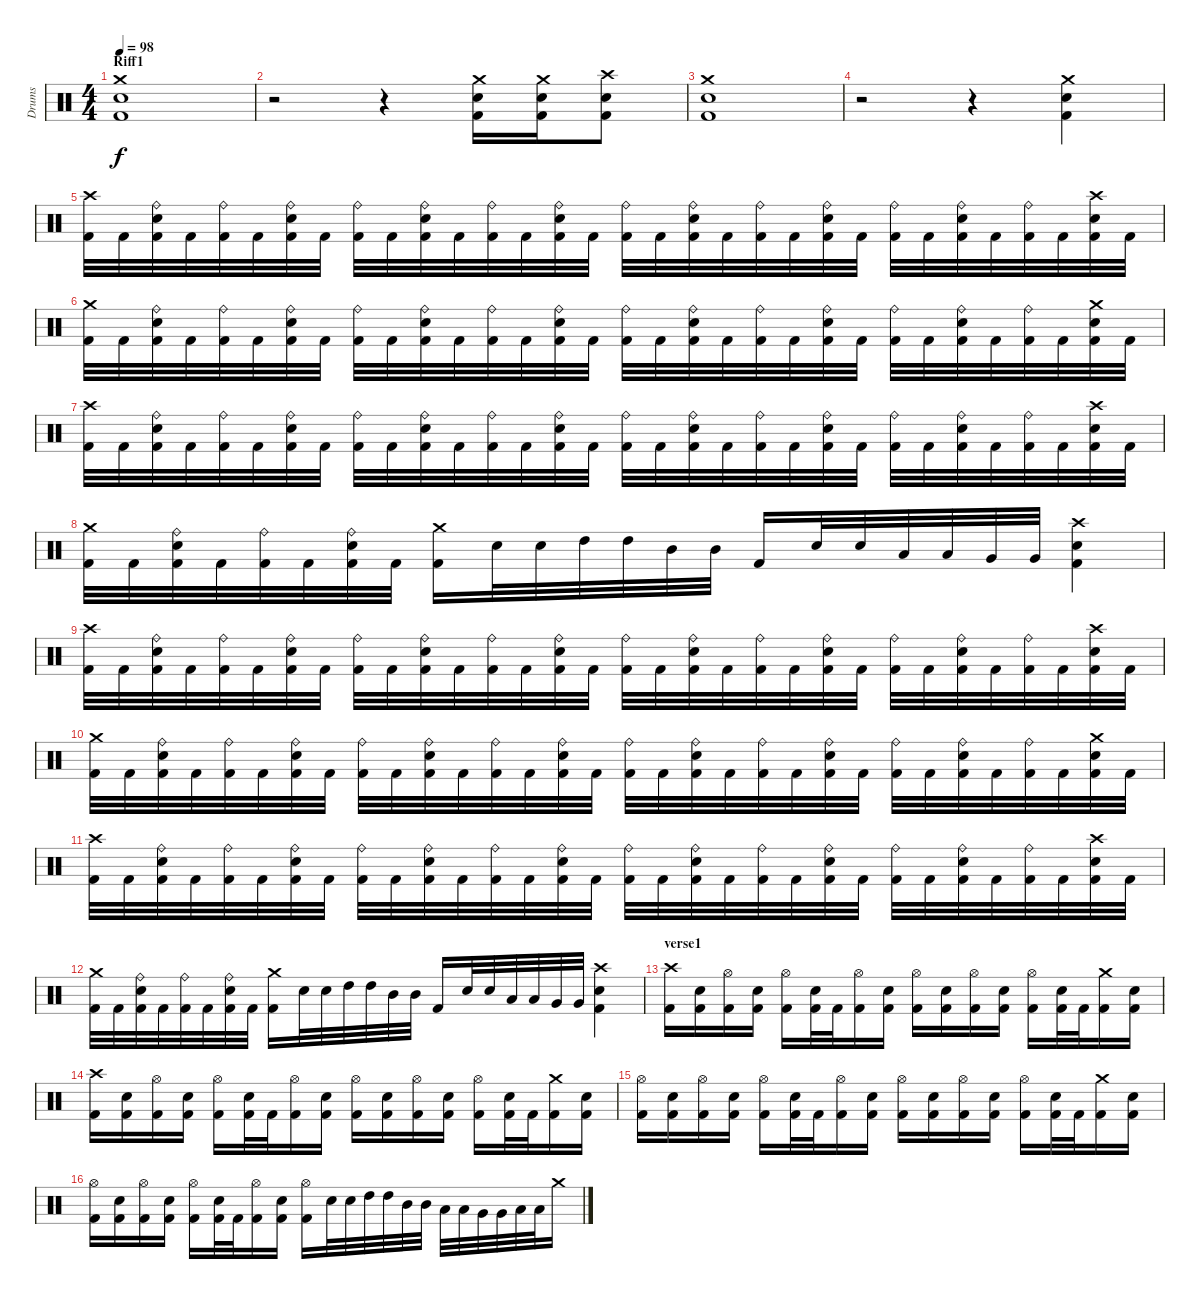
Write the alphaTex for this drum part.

\track ("Drums" "Drums") {instrument percussion}
\staff {score}
\articulation defaults
\ts (4 4)
\section ("" "Riff1")
\tempo 98
\clef neutral
\ks c
("Crash medium (hit)" "Electric Snare (hit)" "Kick (hit) 2").1{dy f} |
r.2 r.4 ("Crash medium (hit)" "Electric Snare (hit)" "Kick (hit) 2").16 ("Crash medium (hit)" "Electric Snare (hit)" "Kick (hit) 2").16 ("Crash high (hit)" "Electric Snare (hit)" "Kick (hit) 2").8 |
("Crash medium (hit)" "Electric Snare (hit)" "Kick (hit) 2").1 |
r.2 r.4 ("Crash medium (hit)" "Electric Snare (hit)" "Kick (hit) 2").4 |
("Crash high (hit)" "Kick (hit) 2").32 "Kick (hit) 2".32 ("Ride (bell)" "Electric Snare (hit)" "Kick (hit) 2").32 "Kick (hit) 2".32 ("Ride (bell)" "Kick (hit) 2").32 "Kick (hit) 2".32 ("Ride (bell)" "Electric Snare (hit)" "Kick (hit) 2").32 "Kick (hit) 2".32 ("Ride (bell)" "Kick (hit) 2").32 "Kick (hit) 2".32 ("Ride (bell)" "Electric Snare (hit)" "Kick (hit) 2").32 "Kick (hit) 2".32 ("Ride (bell)" "Kick (hit) 2").32 "Kick (hit) 2".32 ("Ride (bell)" "Electric Snare (hit)" "Kick (hit) 2").32 "Kick (hit) 2".32 ("Ride (bell)" "Kick (hit) 2").32 "Kick (hit) 2".32 ("Ride (bell)" "Electric Snare (hit)" "Kick (hit) 2").32 "Kick (hit) 2".32 ("Ride (bell)" "Kick (hit) 2").32 "Kick (hit) 2".32 ("Ride (bell)" "Electric Snare (hit)" "Kick (hit) 2").32 "Kick (hit) 2".32 ("Ride (bell)" "Kick (hit) 2").32 "Kick (hit) 2".32 ("Ride (bell)" "Electric Snare (hit)" "Kick (hit) 2").32 "Kick (hit) 2".32 ("Ride (bell)" "Kick (hit) 2").32 "Kick (hit) 2".32 ("Crash high (hit)" "Electric Snare (hit)" "Kick (hit) 2").32 "Kick (hit) 2".32 |
("Crash medium (hit)" "Kick (hit) 2").32 "Kick (hit) 2".32 ("Ride (bell)" "Electric Snare (hit)" "Kick (hit) 2").32 "Kick (hit) 2".32 ("Ride (bell)" "Kick (hit) 2").32 "Kick (hit) 2".32 ("Ride (bell)" "Electric Snare (hit)" "Kick (hit) 2").32 "Kick (hit) 2".32 ("Ride (bell)" "Kick (hit) 2").32 "Kick (hit) 2".32 ("Ride (bell)" "Electric Snare (hit)" "Kick (hit) 2").32 "Kick (hit) 2".32 ("Ride (bell)" "Kick (hit) 2").32 "Kick (hit) 2".32 ("Ride (bell)" "Electric Snare (hit)" "Kick (hit) 2").32 "Kick (hit) 2".32 ("Ride (bell)" "Kick (hit) 2").32 "Kick (hit) 2".32 ("Ride (bell)" "Electric Snare (hit)" "Kick (hit) 2").32 "Kick (hit) 2".32 ("Ride (bell)" "Kick (hit) 2").32 "Kick (hit) 2".32 ("Ride (bell)" "Electric Snare (hit)" "Kick (hit) 2").32 "Kick (hit) 2".32 ("Ride (bell)" "Kick (hit) 2").32 "Kick (hit) 2".32 ("Ride (bell)" "Electric Snare (hit)" "Kick (hit) 2").32 "Kick (hit) 2".32 ("Ride (bell)" "Kick (hit) 2").32 "Kick (hit) 2".32 ("Crash medium (hit)" "Electric Snare (hit)" "Kick (hit) 2").32 "Kick (hit) 2".32 |
("Crash high (hit)" "Kick (hit) 2").32 "Kick (hit) 2".32 ("Ride (bell)" "Electric Snare (hit)" "Kick (hit) 2").32 "Kick (hit) 2".32 ("Ride (bell)" "Kick (hit) 2").32 "Kick (hit) 2".32 ("Ride (bell)" "Electric Snare (hit)" "Kick (hit) 2").32 "Kick (hit) 2".32 ("Ride (bell)" "Kick (hit) 2").32 "Kick (hit) 2".32 ("Ride (bell)" "Electric Snare (hit)" "Kick (hit) 2").32 "Kick (hit) 2".32 ("Ride (bell)" "Kick (hit) 2").32 "Kick (hit) 2".32 ("Ride (bell)" "Electric Snare (hit)" "Kick (hit) 2").32 "Kick (hit) 2".32 ("Ride (bell)" "Kick (hit) 2").32 "Kick (hit) 2".32 ("Ride (bell)" "Electric Snare (hit)" "Kick (hit) 2").32 "Kick (hit) 2".32 ("Ride (bell)" "Kick (hit) 2").32 "Kick (hit) 2".32 ("Ride (bell)" "Electric Snare (hit)" "Kick (hit) 2").32 "Kick (hit) 2".32 ("Ride (bell)" "Kick (hit) 2").32 "Kick (hit) 2".32 ("Ride (bell)" "Electric Snare (hit)" "Kick (hit) 2").32 "Kick (hit) 2".32 ("Ride (bell)" "Kick (hit) 2").32 "Kick (hit) 2".32 ("Crash high (hit)" "Electric Snare (hit)" "Kick (hit) 2").32 "Kick (hit) 2".32 |
("Crash medium (hit)" "Kick (hit) 2").32 "Kick (hit) 2".32 ("Ride (bell)" "Electric Snare (hit)" "Kick (hit) 2").32 "Kick (hit) 2".32 ("Ride (bell)" "Kick (hit) 2").32 "Kick (hit) 2".32 ("Ride (bell)" "Electric Snare (hit)" "Kick (hit) 2").32 "Kick (hit) 2".32 ("Crash medium (hit)" "Kick (hit) 2").16 "Electric Snare (hit)".32 "Electric Snare (hit)".32 "High Tom (hit)".32 "High Tom (hit)".32 "Mid Tom (hit)".32 "Mid Tom (hit)".32 "Kick (hit) 2".16 "Electric Snare (hit)".32 "Electric Snare (hit)".32 "Low Tom (hit)".32 "Low Tom (hit)".32 "Very Low Tom (hit)".32 "Very Low Tom (hit)".32 ("Crash high (hit)" "Electric Snare (hit)" "Kick (hit) 2").4 |
("Crash high (hit)" "Kick (hit) 2").32 "Kick (hit) 2".32 ("Ride (bell)" "Electric Snare (hit)" "Kick (hit) 2").32 "Kick (hit) 2".32 ("Ride (bell)" "Kick (hit) 2").32 "Kick (hit) 2".32 ("Ride (bell)" "Electric Snare (hit)" "Kick (hit) 2").32 "Kick (hit) 2".32 ("Ride (bell)" "Kick (hit) 2").32 "Kick (hit) 2".32 ("Ride (bell)" "Electric Snare (hit)" "Kick (hit) 2").32 "Kick (hit) 2".32 ("Ride (bell)" "Kick (hit) 2").32 "Kick (hit) 2".32 ("Ride (bell)" "Electric Snare (hit)" "Kick (hit) 2").32 "Kick (hit) 2".32 ("Ride (bell)" "Kick (hit) 2").32 "Kick (hit) 2".32 ("Ride (bell)" "Electric Snare (hit)" "Kick (hit) 2").32 "Kick (hit) 2".32 ("Ride (bell)" "Kick (hit) 2").32 "Kick (hit) 2".32 ("Ride (bell)" "Electric Snare (hit)" "Kick (hit) 2").32 "Kick (hit) 2".32 ("Ride (bell)" "Kick (hit) 2").32 "Kick (hit) 2".32 ("Ride (bell)" "Electric Snare (hit)" "Kick (hit) 2").32 "Kick (hit) 2".32 ("Ride (bell)" "Kick (hit) 2").32 "Kick (hit) 2".32 ("Crash high (hit)" "Electric Snare (hit)" "Kick (hit) 2").32 "Kick (hit) 2".32 |
("Crash medium (hit)" "Kick (hit) 2").32 "Kick (hit) 2".32 ("Ride (bell)" "Electric Snare (hit)" "Kick (hit) 2").32 "Kick (hit) 2".32 ("Ride (bell)" "Kick (hit) 2").32 "Kick (hit) 2".32 ("Ride (bell)" "Electric Snare (hit)" "Kick (hit) 2").32 "Kick (hit) 2".32 ("Ride (bell)" "Kick (hit) 2").32 "Kick (hit) 2".32 ("Ride (bell)" "Electric Snare (hit)" "Kick (hit) 2").32 "Kick (hit) 2".32 ("Ride (bell)" "Kick (hit) 2").32 "Kick (hit) 2".32 ("Ride (bell)" "Electric Snare (hit)" "Kick (hit) 2").32 "Kick (hit) 2".32 ("Ride (bell)" "Kick (hit) 2").32 "Kick (hit) 2".32 ("Ride (bell)" "Electric Snare (hit)" "Kick (hit) 2").32 "Kick (hit) 2".32 ("Ride (bell)" "Kick (hit) 2").32 "Kick (hit) 2".32 ("Ride (bell)" "Electric Snare (hit)" "Kick (hit) 2").32 "Kick (hit) 2".32 ("Ride (bell)" "Kick (hit) 2").32 "Kick (hit) 2".32 ("Ride (bell)" "Electric Snare (hit)" "Kick (hit) 2").32 "Kick (hit) 2".32 ("Ride (bell)" "Kick (hit) 2").32 "Kick (hit) 2".32 ("Crash medium (hit)" "Electric Snare (hit)" "Kick (hit) 2").32 "Kick (hit) 2".32 |
("Crash high (hit)" "Kick (hit) 2").32 "Kick (hit) 2".32 ("Ride (bell)" "Electric Snare (hit)" "Kick (hit) 2").32 "Kick (hit) 2".32 ("Ride (bell)" "Kick (hit) 2").32 "Kick (hit) 2".32 ("Ride (bell)" "Electric Snare (hit)" "Kick (hit) 2").32 "Kick (hit) 2".32 ("Ride (bell)" "Kick (hit) 2").32 "Kick (hit) 2".32 ("Ride (bell)" "Electric Snare (hit)" "Kick (hit) 2").32 "Kick (hit) 2".32 ("Ride (bell)" "Kick (hit) 2").32 "Kick (hit) 2".32 ("Ride (bell)" "Electric Snare (hit)" "Kick (hit) 2").32 "Kick (hit) 2".32 ("Ride (bell)" "Kick (hit) 2").32 "Kick (hit) 2".32 ("Ride (bell)" "Electric Snare (hit)" "Kick (hit) 2").32 "Kick (hit) 2".32 ("Ride (bell)" "Kick (hit) 2").32 "Kick (hit) 2".32 ("Ride (bell)" "Electric Snare (hit)" "Kick (hit) 2").32 "Kick (hit) 2".32 ("Ride (bell)" "Kick (hit) 2").32 "Kick (hit) 2".32 ("Ride (bell)" "Electric Snare (hit)" "Kick (hit) 2").32 "Kick (hit) 2".32 ("Ride (bell)" "Kick (hit) 2").32 "Kick (hit) 2".32 ("Crash high (hit)" "Electric Snare (hit)" "Kick (hit) 2").32 "Kick (hit) 2".32 |
("Crash medium (hit)" "Kick (hit) 2").32 "Kick (hit) 2".32 ("Ride (bell)" "Electric Snare (hit)" "Kick (hit) 2").32 "Kick (hit) 2".32 ("Ride (bell)" "Kick (hit) 2").32 "Kick (hit) 2".32 ("Ride (bell)" "Electric Snare (hit)" "Kick (hit) 2").32 "Kick (hit) 2".32 ("Crash medium (hit)" "Kick (hit) 2").16 "Electric Snare (hit)".32 "Electric Snare (hit)".32 "High Tom (hit)".32 "High Tom (hit)".32 "Mid Tom (hit)".32 "Mid Tom (hit)".32 "Kick (hit) 2".16 "Electric Snare (hit)".32 "Electric Snare (hit)".32 "Low Tom (hit)".32 "Low Tom (hit)".32 "Very Low Tom (hit)".32 "Very Low Tom (hit)".32 ("Crash high (hit)" "Electric Snare (hit)" "Kick (hit) 2").4 |
\section ("" "verse1")
("Crash high (hit)" "Kick (hit) 2").16 ("Electric Snare (hit)" "Kick (hit) 2").16 ("Hi-Hat (open)" "Kick (hit) 2").16 ("Electric Snare (hit)" "Kick (hit) 2").16 ("Hi-Hat (open)" "Kick (hit) 2").16 ("Electric Snare (hit)" "Kick (hit) 2").32 "Kick (hit) 2".32 ("Hi-Hat (open)" "Kick (hit) 2").16 ("Electric Snare (hit)" "Kick (hit) 2").16 ("Hi-Hat (open)" "Kick (hit) 2").16 ("Electric Snare (hit)" "Kick (hit) 2").16 ("Hi-Hat (open)" "Kick (hit) 2").16 ("Electric Snare (hit)" "Kick (hit) 2").16 ("Hi-Hat (open)" "Kick (hit) 2").16 ("Electric Snare (hit)" "Kick (hit) 2").32 "Kick (hit) 2".32 ("Crash medium (hit)" "Kick (hit) 2").16 ("Electric Snare (hit)" "Kick (hit) 2").16 |
("Crash high (hit)" "Kick (hit) 2").16 ("Electric Snare (hit)" "Kick (hit) 2").16 ("Hi-Hat (open)" "Kick (hit) 2").16 ("Electric Snare (hit)" "Kick (hit) 2").16 ("Hi-Hat (open)" "Kick (hit) 2").16 ("Electric Snare (hit)" "Kick (hit) 2").32 "Kick (hit) 2".32 ("Hi-Hat (open)" "Kick (hit) 2").16 ("Electric Snare (hit)" "Kick (hit) 2").16 ("Hi-Hat (open)" "Kick (hit) 2").16 ("Electric Snare (hit)" "Kick (hit) 2").16 ("Hi-Hat (open)" "Kick (hit) 2").16 ("Electric Snare (hit)" "Kick (hit) 2").16 ("Hi-Hat (open)" "Kick (hit) 2").16 ("Electric Snare (hit)" "Kick (hit) 2").32 "Kick (hit) 2".32 ("Crash medium (hit)" "Kick (hit) 2").16 ("Electric Snare (hit)" "Kick (hit) 2").16 |
("Hi-Hat (open)" "Kick (hit) 2").16 ("Electric Snare (hit)" "Kick (hit) 2").16 ("Hi-Hat (open)" "Kick (hit) 2").16 ("Electric Snare (hit)" "Kick (hit) 2").16 ("Hi-Hat (open)" "Kick (hit) 2").16 ("Electric Snare (hit)" "Kick (hit) 2").32 "Kick (hit) 2".32 ("Hi-Hat (open)" "Kick (hit) 2").16 ("Electric Snare (hit)" "Kick (hit) 2").16 ("Hi-Hat (open)" "Kick (hit) 2").16 ("Electric Snare (hit)" "Kick (hit) 2").16 ("Hi-Hat (open)" "Kick (hit) 2").16 ("Electric Snare (hit)" "Kick (hit) 2").16 ("Hi-Hat (open)" "Kick (hit) 2").16 ("Electric Snare (hit)" "Kick (hit) 2").32 "Kick (hit) 2".32 ("Crash medium (hit)" "Kick (hit) 2").16 ("Electric Snare (hit)" "Kick (hit) 2").16 |
("Hi-Hat (open)" "Kick (hit) 2").16 ("Electric Snare (hit)" "Kick (hit) 2").16 ("Hi-Hat (open)" "Kick (hit) 2").16 ("Electric Snare (hit)" "Kick (hit) 2").16 ("Hi-Hat (open)" "Kick (hit) 2").16 ("Electric Snare (hit)" "Kick (hit) 2").32 "Kick (hit) 2".32 ("Hi-Hat (open)" "Kick (hit) 2").16 ("Electric Snare (hit)" "Kick (hit) 2").16 ("Hi-Hat (open)" "Kick (hit) 2").16 "Electric Snare (hit)".32 "Electric Snare (hit)".32 "High Tom (hit)".32 "High Tom (hit)".32 "Mid Tom (hit)".32 "Mid Tom (hit)".32 "Low Tom (hit)".32 "Low Tom (hit)".32 "Very Low Tom (hit)".32 "Very Low Tom (hit)".32 "Low Floor Tom (hit)".32 "Low Floor Tom (hit)".32 "Crash medium (hit)".16
